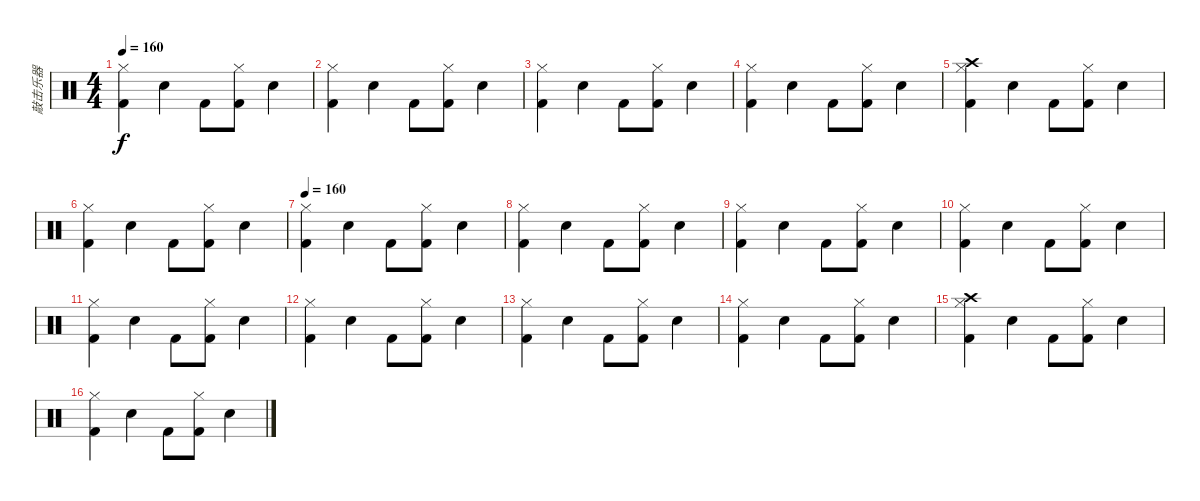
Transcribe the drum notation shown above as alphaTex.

\track ("敲击乐器" "敲击乐器") {instrument percussion}
\staff {score}
\articulation defaults
\ts (4 4)
\tempo 160
\clef neutral
\ks c
("Hi-Hat (closed)" "Kick (hit) 2").4{dy f} "Electric Snare (hit)".4 "Kick (hit) 2".8 ("Hi-Hat (closed)" "Kick (hit) 2").8 "Electric Snare (hit)".4 |
("Hi-Hat (closed)" "Kick (hit) 2").4 "Electric Snare (hit)".4 "Kick (hit) 2".8 ("Hi-Hat (closed)" "Kick (hit) 2").8 "Electric Snare (hit)".4 |
("Hi-Hat (closed)" "Kick (hit) 2").4 "Electric Snare (hit)".4 "Kick (hit) 2".8 ("Hi-Hat (closed)" "Kick (hit) 2").8 "Electric Snare (hit)".4 |
("Hi-Hat (closed)" "Kick (hit) 2").4 "Electric Snare (hit)".4 "Kick (hit) 2".8 ("Hi-Hat (closed)" "Kick (hit) 2").8 "Electric Snare (hit)".4 |
("Hi-Hat (closed)" "Crash high (hit)" "Kick (hit) 2").4 "Electric Snare (hit)".4 "Kick (hit) 2".8 ("Hi-Hat (closed)" "Kick (hit) 2").8 "Electric Snare (hit)".4 |
("Hi-Hat (closed)" "Kick (hit) 2").4 "Electric Snare (hit)".4 "Kick (hit) 2".8 ("Hi-Hat (closed)" "Kick (hit) 2").8 "Electric Snare (hit)".4 |
\tempo 160
("Hi-Hat (closed)" "Kick (hit) 2").4 "Electric Snare (hit)".4 "Kick (hit) 2".8 ("Hi-Hat (closed)" "Kick (hit) 2").8 "Electric Snare (hit)".4 |
("Hi-Hat (closed)" "Kick (hit) 2").4 "Electric Snare (hit)".4 "Kick (hit) 2".8 ("Hi-Hat (closed)" "Kick (hit) 2").8 "Electric Snare (hit)".4 |
("Hi-Hat (closed)" "Kick (hit) 2").4 "Electric Snare (hit)".4 "Kick (hit) 2".8 ("Hi-Hat (closed)" "Kick (hit) 2").8 "Electric Snare (hit)".4 |
("Hi-Hat (closed)" "Kick (hit) 2").4 "Electric Snare (hit)".4 "Kick (hit) 2".8 ("Hi-Hat (closed)" "Kick (hit) 2").8 "Electric Snare (hit)".4 |
("Hi-Hat (closed)" "Kick (hit) 2").4 "Electric Snare (hit)".4 "Kick (hit) 2".8 ("Hi-Hat (closed)" "Kick (hit) 2").8 "Electric Snare (hit)".4 |
("Hi-Hat (closed)" "Kick (hit) 2").4 "Electric Snare (hit)".4 "Kick (hit) 2".8 ("Hi-Hat (closed)" "Kick (hit) 2").8 "Electric Snare (hit)".4 |
("Hi-Hat (closed)" "Kick (hit) 2").4 "Electric Snare (hit)".4 "Kick (hit) 2".8 ("Hi-Hat (closed)" "Kick (hit) 2").8 "Electric Snare (hit)".4 |
("Hi-Hat (closed)" "Kick (hit) 2").4 "Electric Snare (hit)".4 "Kick (hit) 2".8 ("Hi-Hat (closed)" "Kick (hit) 2").8 "Electric Snare (hit)".4 |
("Hi-Hat (closed)" "Crash high (hit)" "Kick (hit) 2").4 "Electric Snare (hit)".4 "Kick (hit) 2".8 ("Hi-Hat (closed)" "Kick (hit) 2").8 "Electric Snare (hit)".4 |
("Hi-Hat (closed)" "Kick (hit) 2").4 "Electric Snare (hit)".4 "Kick (hit) 2".8 ("Hi-Hat (closed)" "Kick (hit) 2").8 "Electric Snare (hit)".4
